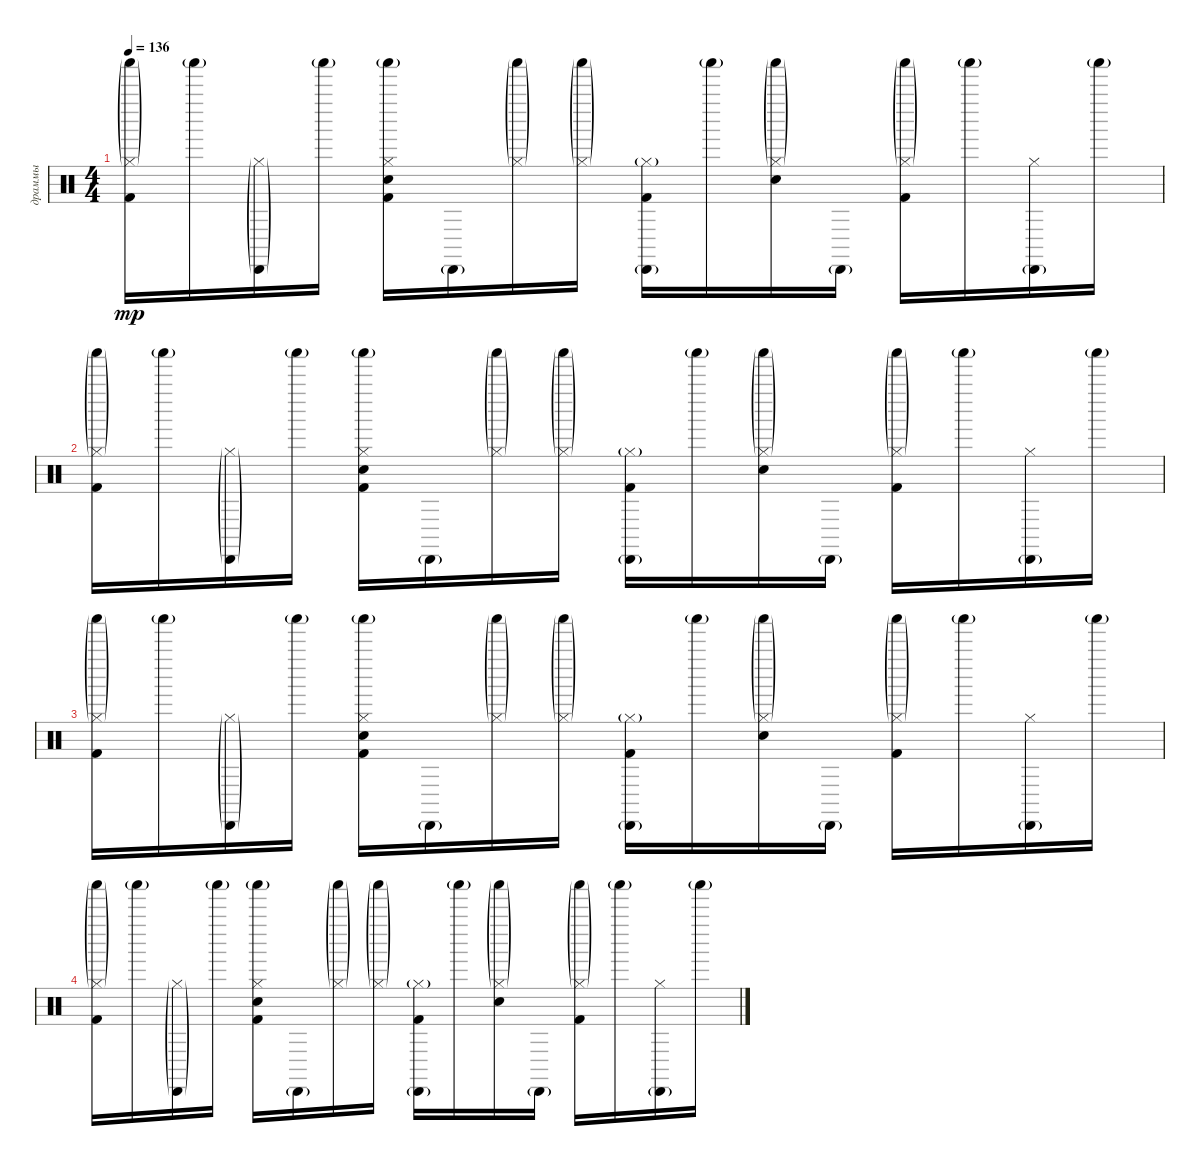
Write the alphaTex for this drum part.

\track ("драммы" "драммы") {instrument percussion}
\staff {score}
\articulation defaults
\ts (4 4)
\tempo 136
\clef neutral
\ks c
("Shaker (hit)"{g} "Kick (hit) 2" "Hi-Hat (closed)"{g}).16{dy mp} "Shaker (hit)"{g}.16 ("Cabasa (hit)"{g} "Hi-Hat (closed)"{g}).16 "Shaker (hit)"{g}.16 ("Shaker (hit)"{g} "Snare (hit) 2" "Kick (hit) 2" "Hi-Hat (closed)").16 "Cabasa (hit)"{g}.16 ("Shaker (hit)"{g} "Hi-Hat (closed)"{g}).16 ("Shaker (hit)"{g} "Hi-Hat (closed)"{g}).16 ("Cabasa (hit)"{g} "Kick (hit) 2" "Hi-Hat (closed)"{g}).16 "Shaker (hit)"{g}.16 ("Shaker (hit)"{g} "Snare (hit) 2" "Hi-Hat (closed)"{g}).16 "Cabasa (hit)"{g}.16 ("Shaker (hit)"{g} "Kick (hit) 2" "Hi-Hat (closed)"{g}).16 "Shaker (hit)"{g}.16 ("Cabasa (hit)"{g} "Hi-Hat (closed)").16 "Shaker (hit)"{g}.16 |
("Shaker (hit)"{g} "Kick (hit) 2" "Hi-Hat (closed)"{g}).16 "Shaker (hit)"{g}.16 ("Cabasa (hit)"{g} "Hi-Hat (closed)"{g}).16 "Shaker (hit)"{g}.16 ("Shaker (hit)"{g} "Snare (hit) 2" "Kick (hit) 2" "Hi-Hat (closed)").16 "Cabasa (hit)"{g}.16 ("Shaker (hit)"{g} "Hi-Hat (closed)"{g}).16 ("Shaker (hit)"{g} "Hi-Hat (closed)"{g}).16 ("Cabasa (hit)"{g} "Kick (hit) 2" "Hi-Hat (closed)"{g}).16 "Shaker (hit)"{g}.16 ("Shaker (hit)"{g} "Snare (hit) 2" "Hi-Hat (closed)"{g}).16 "Cabasa (hit)"{g}.16 ("Shaker (hit)"{g} "Kick (hit) 2" "Hi-Hat (closed)"{g}).16 "Shaker (hit)"{g}.16 ("Cabasa (hit)"{g} "Hi-Hat (closed)").16 "Shaker (hit)"{g}.16 |
("Shaker (hit)"{g} "Kick (hit) 2" "Hi-Hat (closed)"{g}).16 "Shaker (hit)"{g}.16 ("Cabasa (hit)"{g} "Hi-Hat (closed)"{g}).16 "Shaker (hit)"{g}.16 ("Shaker (hit)"{g} "Snare (hit) 2" "Kick (hit) 2" "Hi-Hat (closed)").16 "Cabasa (hit)"{g}.16 ("Shaker (hit)"{g} "Hi-Hat (closed)"{g}).16 ("Shaker (hit)"{g} "Hi-Hat (closed)"{g}).16 ("Cabasa (hit)"{g} "Kick (hit) 2" "Hi-Hat (closed)"{g}).16 "Shaker (hit)"{g}.16 ("Shaker (hit)"{g} "Snare (hit) 2" "Hi-Hat (closed)"{g}).16 "Cabasa (hit)"{g}.16 ("Shaker (hit)"{g} "Kick (hit) 2" "Hi-Hat (closed)"{g}).16 "Shaker (hit)"{g}.16 ("Cabasa (hit)"{g} "Hi-Hat (closed)").16 "Shaker (hit)"{g}.16 |
("Shaker (hit)"{g} "Kick (hit) 2" "Hi-Hat (closed)"{g}).16 "Shaker (hit)"{g}.16 ("Cabasa (hit)"{g} "Hi-Hat (closed)"{g}).16 "Shaker (hit)"{g}.16 ("Shaker (hit)"{g} "Snare (hit) 2" "Kick (hit) 2" "Hi-Hat (closed)").16 "Cabasa (hit)"{g}.16 ("Shaker (hit)"{g} "Hi-Hat (closed)"{g}).16 ("Shaker (hit)"{g} "Hi-Hat (closed)"{g}).16 ("Cabasa (hit)"{g} "Kick (hit) 2" "Hi-Hat (closed)"{g}).16 "Shaker (hit)"{g}.16 ("Shaker (hit)"{g} "Snare (hit) 2" "Hi-Hat (closed)"{g}).16 "Cabasa (hit)"{g}.16 ("Shaker (hit)"{g} "Kick (hit) 2" "Hi-Hat (closed)"{g}).16 "Shaker (hit)"{g}.16 ("Cabasa (hit)"{g} "Hi-Hat (closed)").16 "Shaker (hit)"{g}.16
